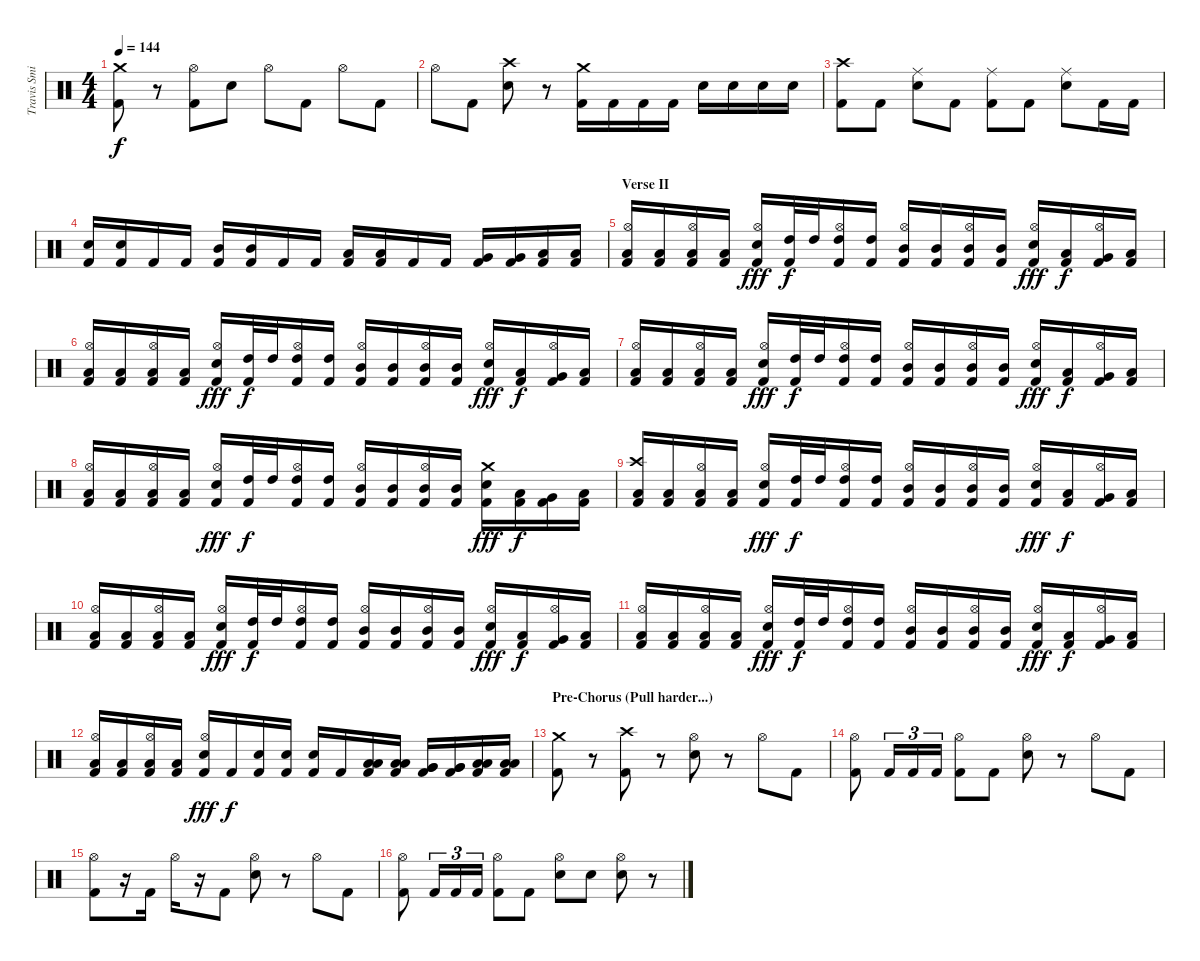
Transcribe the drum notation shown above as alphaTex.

\track ("Travis Smith" "Travis Smi") {instrument percussion}
\staff {score}
\articulation defaults
\ts (4 4)
\tempo 144
\clef neutral
\ks c
("Crash medium (hit)" "Kick (hit) 2").8{dy f} r.8 ("Hi-Hat (open)" "Kick (hit) 2").8 "Electric Snare (hit)".8 "Hi-Hat (open)".8 "Kick (hit) 2".8 "Hi-Hat (open)".8 "Kick (hit) 2".8 |
"Hi-Hat (open)".8 "Kick (hit) 2".8 ("Crash high (hit)" "Electric Snare (hit)").8 r.8 ("Crash medium (hit)" "Kick (hit) 2").16 "Kick (hit) 2".16 "Kick (hit) 2".16 "Kick (hit) 2".16 "Electric Snare (hit)".16 "Electric Snare (hit)".16 "Electric Snare (hit)".16 "Electric Snare (hit)".16 |
("Crash high (hit)" "Kick (hit) 2").8 "Kick (hit) 2".8 ("Ride (middle)" "Electric Snare (hit)").8 "Kick (hit) 2".8 ("Ride (middle)" "Kick (hit) 2").8 "Kick (hit) 2".8 ("Ride (middle)" "Electric Snare (hit)").8 "Kick (hit) 2".16 "Kick (hit) 2".16 |
("Electric Snare (hit)" "Kick (hit) 2").16 ("Electric Snare (hit)" "Kick (hit) 2").16 "Kick (hit) 2".16 "Kick (hit) 2".16 ("Mid Tom (hit)" "Kick (hit) 2").16 ("Mid Tom (hit)" "Kick (hit) 2").16 "Kick (hit) 2".16 "Kick (hit) 2".16 ("Low Tom (hit)" "Kick (hit) 2").16 ("Low Tom (hit)" "Kick (hit) 2").16 "Kick (hit) 2".16 "Kick (hit) 2".16 ("Very Low Tom (hit)" "Kick (hit) 2").16 ("Very Low Tom (hit)" "Kick (hit) 2").16 ("Low Floor Tom (hit)" "Kick (hit) 2").16 ("Low Floor Tom (hit)" "Kick (hit) 2").16 |
\section ("" "Verse II")
("Hi-Hat (open)" "Low Tom (hit)" "Kick (hit) 2").16 ("Low Tom (hit)" "Kick (hit) 2").16 ("Hi-Hat (open)" "Low Tom (hit)" "Kick (hit) 2").16 ("Low Tom (hit)" "Kick (hit) 2").16 ("Hi-Hat (open)" "Electric Snare (hit)" "Kick (hit) 2").16{dy fff} ("High Tom (hit)" "Kick (hit) 2").32{dy f} "High Tom (hit)".32 ("Hi-Hat (open)" "High Tom (hit)" "Kick (hit) 2").16 ("High Tom (hit)" "Kick (hit) 2").16 ("Hi-Hat (open)" "Mid Tom (hit)" "Kick (hit) 2").16 ("Mid Tom (hit)" "Kick (hit) 2").16 ("Hi-Hat (open)" "Mid Tom (hit)" "Kick (hit) 2").16 ("Mid Tom (hit)" "Kick (hit) 2").16 ("Hi-Hat (open)" "Electric Snare (hit)" "Kick (hit) 2").16{dy fff} ("Low Tom (hit)" "Kick (hit) 2").16{dy f} ("Hi-Hat (open)" "Very Low Tom (hit)" "Kick (hit) 2").16 ("Low Floor Tom (hit)" "Kick (hit) 2").16 |
("Hi-Hat (open)" "Low Tom (hit)" "Kick (hit) 2").16 ("Low Tom (hit)" "Kick (hit) 2").16 ("Hi-Hat (open)" "Low Tom (hit)" "Kick (hit) 2").16 ("Low Tom (hit)" "Kick (hit) 2").16 ("Hi-Hat (open)" "Electric Snare (hit)" "Kick (hit) 2").16{dy fff} ("High Tom (hit)" "Kick (hit) 2").32{dy f} "High Tom (hit)".32 ("Hi-Hat (open)" "High Tom (hit)" "Kick (hit) 2").16 ("High Tom (hit)" "Kick (hit) 2").16 ("Hi-Hat (open)" "Mid Tom (hit)" "Kick (hit) 2").16 ("Mid Tom (hit)" "Kick (hit) 2").16 ("Hi-Hat (open)" "Mid Tom (hit)" "Kick (hit) 2").16 ("Mid Tom (hit)" "Kick (hit) 2").16 ("Hi-Hat (open)" "Electric Snare (hit)" "Kick (hit) 2").16{dy fff} ("Low Tom (hit)" "Kick (hit) 2").16{dy f} ("Hi-Hat (open)" "Very Low Tom (hit)" "Kick (hit) 2").16 ("Low Floor Tom (hit)" "Kick (hit) 2").16 |
("Hi-Hat (open)" "Low Tom (hit)" "Kick (hit) 2").16 ("Low Tom (hit)" "Kick (hit) 2").16 ("Hi-Hat (open)" "Low Tom (hit)" "Kick (hit) 2").16 ("Low Tom (hit)" "Kick (hit) 2").16 ("Hi-Hat (open)" "Electric Snare (hit)" "Kick (hit) 2").16{dy fff} ("High Tom (hit)" "Kick (hit) 2").32{dy f} "High Tom (hit)".32 ("Hi-Hat (open)" "High Tom (hit)" "Kick (hit) 2").16 ("High Tom (hit)" "Kick (hit) 2").16 ("Hi-Hat (open)" "Mid Tom (hit)" "Kick (hit) 2").16 ("Mid Tom (hit)" "Kick (hit) 2").16 ("Hi-Hat (open)" "Mid Tom (hit)" "Kick (hit) 2").16 ("Mid Tom (hit)" "Kick (hit) 2").16 ("Hi-Hat (open)" "Electric Snare (hit)" "Kick (hit) 2").16{dy fff} ("Low Tom (hit)" "Kick (hit) 2").16{dy f} ("Hi-Hat (open)" "Very Low Tom (hit)" "Kick (hit) 2").16 ("Low Floor Tom (hit)" "Kick (hit) 2").16 |
("Hi-Hat (open)" "Low Tom (hit)" "Kick (hit) 2").16 ("Low Tom (hit)" "Kick (hit) 2").16 ("Hi-Hat (open)" "Low Tom (hit)" "Kick (hit) 2").16 ("Low Tom (hit)" "Kick (hit) 2").16 ("Hi-Hat (open)" "Electric Snare (hit)" "Kick (hit) 2").16{dy fff} ("High Tom (hit)" "Kick (hit) 2").32{dy f} "High Tom (hit)".32 ("Hi-Hat (open)" "High Tom (hit)" "Kick (hit) 2").16 ("High Tom (hit)" "Kick (hit) 2").16 ("Hi-Hat (open)" "Mid Tom (hit)" "Kick (hit) 2").16 ("Mid Tom (hit)" "Kick (hit) 2").16 ("Hi-Hat (open)" "Mid Tom (hit)" "Kick (hit) 2").16 ("Mid Tom (hit)" "Kick (hit) 2").16 ("Crash medium (hit)" "Electric Snare (hit)" "Kick (hit) 2").16{dy fff} ("Low Tom (hit)" "Kick (hit) 2").16{dy f} ("Very Low Tom (hit)" "Kick (hit) 2").16 ("Low Floor Tom (hit)" "Kick (hit) 2").16 |
("Crash high (hit)" "Low Tom (hit)" "Kick (hit) 2").16 ("Low Tom (hit)" "Kick (hit) 2").16 ("Hi-Hat (open)" "Low Tom (hit)" "Kick (hit) 2").16 ("Low Tom (hit)" "Kick (hit) 2").16 ("Hi-Hat (open)" "Electric Snare (hit)" "Kick (hit) 2").16{dy fff} ("High Tom (hit)" "Kick (hit) 2").32{dy f} "High Tom (hit)".32 ("Hi-Hat (open)" "High Tom (hit)" "Kick (hit) 2").16 ("High Tom (hit)" "Kick (hit) 2").16 ("Hi-Hat (open)" "Mid Tom (hit)" "Kick (hit) 2").16 ("Mid Tom (hit)" "Kick (hit) 2").16 ("Hi-Hat (open)" "Mid Tom (hit)" "Kick (hit) 2").16 ("Mid Tom (hit)" "Kick (hit) 2").16 ("Hi-Hat (open)" "Electric Snare (hit)" "Kick (hit) 2").16{dy fff} ("Low Tom (hit)" "Kick (hit) 2").16{dy f} ("Hi-Hat (open)" "Very Low Tom (hit)" "Kick (hit) 2").16 ("Low Floor Tom (hit)" "Kick (hit) 2").16 |
("Hi-Hat (open)" "Low Tom (hit)" "Kick (hit) 2").16 ("Low Tom (hit)" "Kick (hit) 2").16 ("Hi-Hat (open)" "Low Tom (hit)" "Kick (hit) 2").16 ("Low Tom (hit)" "Kick (hit) 2").16 ("Hi-Hat (open)" "Electric Snare (hit)" "Kick (hit) 2").16{dy fff} ("High Tom (hit)" "Kick (hit) 2").32{dy f} "High Tom (hit)".32 ("Hi-Hat (open)" "High Tom (hit)" "Kick (hit) 2").16 ("High Tom (hit)" "Kick (hit) 2").16 ("Hi-Hat (open)" "Mid Tom (hit)" "Kick (hit) 2").16 ("Mid Tom (hit)" "Kick (hit) 2").16 ("Hi-Hat (open)" "Mid Tom (hit)" "Kick (hit) 2").16 ("Mid Tom (hit)" "Kick (hit) 2").16 ("Hi-Hat (open)" "Electric Snare (hit)" "Kick (hit) 2").16{dy fff} ("Low Tom (hit)" "Kick (hit) 2").16{dy f} ("Hi-Hat (open)" "Very Low Tom (hit)" "Kick (hit) 2").16 ("Low Floor Tom (hit)" "Kick (hit) 2").16 |
("Hi-Hat (open)" "Low Tom (hit)" "Kick (hit) 2").16 ("Low Tom (hit)" "Kick (hit) 2").16 ("Hi-Hat (open)" "Low Tom (hit)" "Kick (hit) 2").16 ("Low Tom (hit)" "Kick (hit) 2").16 ("Hi-Hat (open)" "Electric Snare (hit)" "Kick (hit) 2").16{dy fff} ("High Tom (hit)" "Kick (hit) 2").32{dy f} "High Tom (hit)".32 ("Hi-Hat (open)" "High Tom (hit)" "Kick (hit) 2").16 ("High Tom (hit)" "Kick (hit) 2").16 ("Hi-Hat (open)" "Mid Tom (hit)" "Kick (hit) 2").16 ("Mid Tom (hit)" "Kick (hit) 2").16 ("Hi-Hat (open)" "Mid Tom (hit)" "Kick (hit) 2").16 ("Mid Tom (hit)" "Kick (hit) 2").16 ("Hi-Hat (open)" "Electric Snare (hit)" "Kick (hit) 2").16{dy fff} ("Low Tom (hit)" "Kick (hit) 2").16{dy f} ("Hi-Hat (open)" "Very Low Tom (hit)" "Kick (hit) 2").16 ("Low Floor Tom (hit)" "Kick (hit) 2").16 |
("Hi-Hat (open)" "Low Tom (hit)" "Kick (hit) 2").16 ("Low Tom (hit)" "Kick (hit) 2").16 ("Hi-Hat (open)" "Low Tom (hit)" "Kick (hit) 2").16 ("Low Tom (hit)" "Kick (hit) 2").16 ("Hi-Hat (open)" "Electric Snare (hit)" "Kick (hit) 2").16{dy fff} "Kick (hit) 2".16{dy f} ("Electric Snare (hit)" "Kick (hit) 2").16 ("Electric Snare (hit)" "Kick (hit) 2").16 ("Electric Snare (hit)" "Kick (hit) 2").16 "Kick (hit) 2".16 ("Low Tom (hit)" "Low Tom (hit)" "Kick (hit) 2").16 ("Low Tom (hit)" "Low Tom (hit)" "Kick (hit) 2").16 ("Very Low Tom (hit)" "Very Low Tom (hit)" "Kick (hit) 2").16 ("Very Low Tom (hit)" "Very Low Tom (hit)" "Kick (hit) 2").16 ("Low Floor Tom (hit)" "Low Floor Tom (hit)" "Kick (hit) 2").16 ("Low Floor Tom (hit)" "Low Floor Tom (hit)" "Kick (hit) 2").16 |
\section ("" "Pre-Chorus (Pull harder...)")
("Crash medium (hit)" "Kick (hit) 2").8 r.8 ("Crash high (hit)" "Kick (hit) 2").8 r.8 ("Hi-Hat (open)" "Electric Snare (hit)").8 r.8 "Hi-Hat (open)".8 "Kick (hit) 2".8 |
("Hi-Hat (open)" "Kick (hit) 2").8 "Kick (hit) 2".16{tu (3 2)} "Kick (hit) 2".16{tu (3 2)} "Kick (hit) 2".16{tu (3 2)} ("Hi-Hat (open)" "Kick (hit) 2").8 "Kick (hit) 2".8 ("Hi-Hat (open)" "Electric Snare (hit)").8 r.8 "Hi-Hat (open)".8 "Kick (hit) 2".8 |
("Hi-Hat (open)" "Kick (hit) 2").8 r.16 "Kick (hit) 2".16 "Hi-Hat (open)".16 r.16 "Kick (hit) 2".8 ("Hi-Hat (open)" "Electric Snare (hit)").8 r.8 "Hi-Hat (open)".8 "Kick (hit) 2".8 |
("Hi-Hat (open)" "Kick (hit) 2").8 "Kick (hit) 2".16{tu (3 2)} "Kick (hit) 2".16{tu (3 2)} "Kick (hit) 2".16{tu (3 2)} ("Hi-Hat (open)" "Kick (hit) 2").8 "Kick (hit) 2".8 ("Hi-Hat (open)" "Electric Snare (hit)").8 "Electric Snare (hit)".8 ("Hi-Hat (open)" "Electric Snare (hit)").8 r.8
